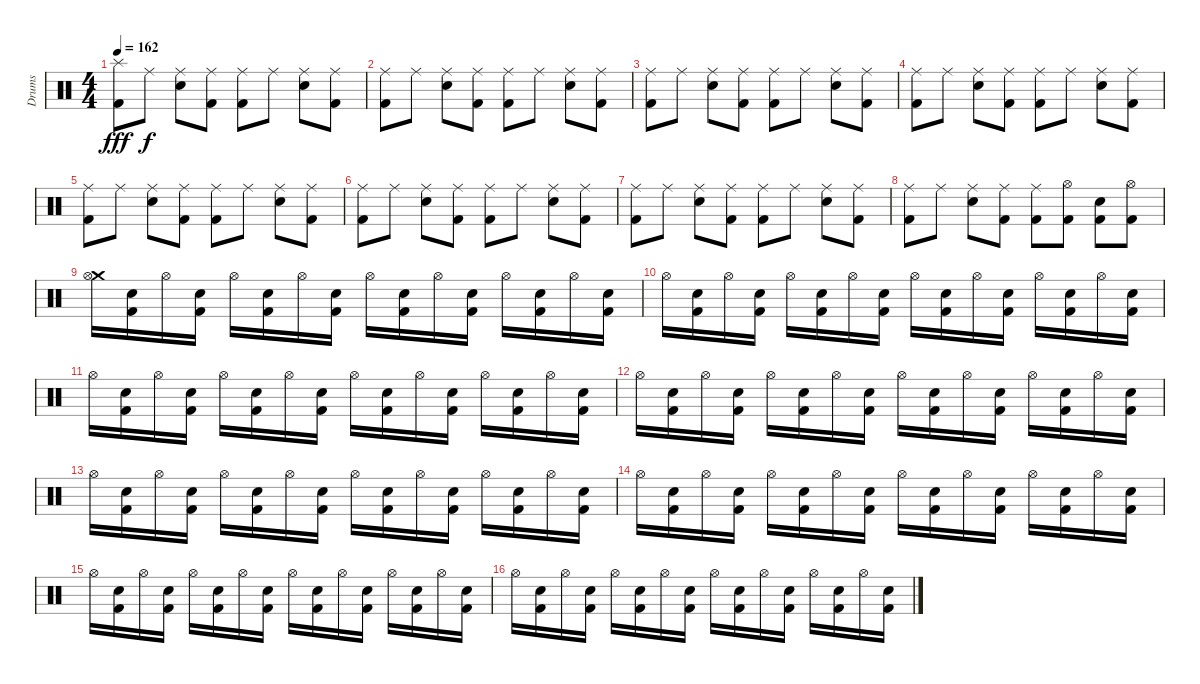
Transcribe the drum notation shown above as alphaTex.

\track ("Drums" "Drums") {instrument percussion}
\staff {score}
\articulation defaults
\ts (4 4)
\tempo 162
\clef neutral
\ks c
("Splash (hit)" "Kick (hit) 2").8{dy fff} "Ride (middle)".8{dy f} ("Ride (middle)" "Electric Snare (hit)").8 ("Ride (middle)" "Kick (hit) 2").8 ("Ride (middle)" "Kick (hit) 2").8 "Ride (middle)".8 ("Ride (middle)" "Electric Snare (hit)").8 ("Ride (middle)" "Kick (hit) 2").8 |
("Ride (middle)" "Kick (hit) 2").8 "Ride (middle)".8 ("Ride (middle)" "Electric Snare (hit)").8 ("Ride (middle)" "Kick (hit) 2").8 ("Ride (middle)" "Kick (hit) 2").8 "Ride (middle)".8 ("Ride (middle)" "Electric Snare (hit)").8 ("Ride (middle)" "Kick (hit) 2").8 |
("Ride (middle)" "Kick (hit) 2").8 "Ride (middle)".8 ("Ride (middle)" "Electric Snare (hit)").8 ("Ride (middle)" "Kick (hit) 2").8 ("Ride (middle)" "Kick (hit) 2").8 "Ride (middle)".8 ("Ride (middle)" "Electric Snare (hit)").8 ("Ride (middle)" "Kick (hit) 2").8 |
("Ride (middle)" "Kick (hit) 2").8 "Ride (middle)".8 ("Ride (middle)" "Electric Snare (hit)").8 ("Ride (middle)" "Kick (hit) 2").8 ("Ride (middle)" "Kick (hit) 2").8 "Ride (middle)".8 ("Ride (middle)" "Electric Snare (hit)").8 ("Ride (middle)" "Kick (hit) 2").8 |
("Ride (middle)" "Kick (hit) 2").8 "Ride (middle)".8 ("Ride (middle)" "Electric Snare (hit)").8 ("Ride (middle)" "Kick (hit) 2").8 ("Ride (middle)" "Kick (hit) 2").8 "Ride (middle)".8 ("Ride (middle)" "Electric Snare (hit)").8 ("Ride (middle)" "Kick (hit) 2").8 |
("Ride (middle)" "Kick (hit) 2").8 "Ride (middle)".8 ("Ride (middle)" "Electric Snare (hit)").8 ("Ride (middle)" "Kick (hit) 2").8 ("Ride (middle)" "Kick (hit) 2").8 "Ride (middle)".8 ("Ride (middle)" "Electric Snare (hit)").8 ("Ride (middle)" "Kick (hit) 2").8 |
("Ride (middle)" "Kick (hit) 2").8 "Ride (middle)".8 ("Ride (middle)" "Electric Snare (hit)").8 ("Ride (middle)" "Kick (hit) 2").8 ("Ride (middle)" "Kick (hit) 2").8 "Ride (middle)".8 ("Ride (middle)" "Electric Snare (hit)").8 ("Ride (middle)" "Kick (hit) 2").8 |
("Ride (middle)" "Kick (hit) 2").8 "Ride (middle)".8 ("Ride (middle)" "Electric Snare (hit)").8 ("Ride (middle)" "Kick (hit) 2").8 ("Ride (middle)" "Kick (hit) 2").8 ("Hi-Hat (open)" "Kick (hit) 2").8 ("Electric Snare (hit)" "Kick (hit) 2").8 ("Hi-Hat (open)" "Kick (hit) 2").8 |
("Crash medium (hit)" "Hi-Hat (open)").16 ("Electric Snare (hit)" "Kick (hit) 2").16 "Hi-Hat (open)".16 ("Electric Snare (hit)" "Kick (hit) 2").16 "Hi-Hat (open)".16 ("Electric Snare (hit)" "Kick (hit) 2").16 "Hi-Hat (open)".16 ("Electric Snare (hit)" "Kick (hit) 2").16 "Hi-Hat (open)".16 ("Electric Snare (hit)" "Kick (hit) 2").16 "Hi-Hat (open)".16 ("Electric Snare (hit)" "Kick (hit) 2").16 "Hi-Hat (open)".16 ("Electric Snare (hit)" "Kick (hit) 2").16 "Hi-Hat (open)".16 ("Electric Snare (hit)" "Kick (hit) 2").16 |
"Hi-Hat (open)".16 ("Electric Snare (hit)" "Kick (hit) 2").16 "Hi-Hat (open)".16 ("Electric Snare (hit)" "Kick (hit) 2").16 "Hi-Hat (open)".16 ("Electric Snare (hit)" "Kick (hit) 2").16 "Hi-Hat (open)".16 ("Electric Snare (hit)" "Kick (hit) 2").16 "Hi-Hat (open)".16 ("Electric Snare (hit)" "Kick (hit) 2").16 "Hi-Hat (open)".16 ("Electric Snare (hit)" "Kick (hit) 2").16 "Hi-Hat (open)".16 ("Electric Snare (hit)" "Kick (hit) 2").16 "Hi-Hat (open)".16 ("Electric Snare (hit)" "Kick (hit) 2").16 |
"Hi-Hat (open)".16 ("Electric Snare (hit)" "Kick (hit) 2").16 "Hi-Hat (open)".16 ("Electric Snare (hit)" "Kick (hit) 2").16 "Hi-Hat (open)".16 ("Electric Snare (hit)" "Kick (hit) 2").16 "Hi-Hat (open)".16 ("Electric Snare (hit)" "Kick (hit) 2").16 "Hi-Hat (open)".16 ("Electric Snare (hit)" "Kick (hit) 2").16 "Hi-Hat (open)".16 ("Electric Snare (hit)" "Kick (hit) 2").16 "Hi-Hat (open)".16 ("Electric Snare (hit)" "Kick (hit) 2").16 "Hi-Hat (open)".16 ("Electric Snare (hit)" "Kick (hit) 2").16 |
"Hi-Hat (open)".16 ("Electric Snare (hit)" "Kick (hit) 2").16 "Hi-Hat (open)".16 ("Electric Snare (hit)" "Kick (hit) 2").16 "Hi-Hat (open)".16 ("Electric Snare (hit)" "Kick (hit) 2").16 "Hi-Hat (open)".16 ("Electric Snare (hit)" "Kick (hit) 2").16 "Hi-Hat (open)".16 ("Electric Snare (hit)" "Kick (hit) 2").16 "Hi-Hat (open)".16 ("Electric Snare (hit)" "Kick (hit) 2").16 "Hi-Hat (open)".16 ("Electric Snare (hit)" "Kick (hit) 2").16 "Hi-Hat (open)".16 ("Electric Snare (hit)" "Kick (hit) 2").16 |
"Hi-Hat (open)".16 ("Electric Snare (hit)" "Kick (hit) 2").16 "Hi-Hat (open)".16 ("Electric Snare (hit)" "Kick (hit) 2").16 "Hi-Hat (open)".16 ("Electric Snare (hit)" "Kick (hit) 2").16 "Hi-Hat (open)".16 ("Electric Snare (hit)" "Kick (hit) 2").16 "Hi-Hat (open)".16 ("Electric Snare (hit)" "Kick (hit) 2").16 "Hi-Hat (open)".16 ("Electric Snare (hit)" "Kick (hit) 2").16 "Hi-Hat (open)".16 ("Electric Snare (hit)" "Kick (hit) 2").16 "Hi-Hat (open)".16 ("Electric Snare (hit)" "Kick (hit) 2").16 |
"Hi-Hat (open)".16 ("Electric Snare (hit)" "Kick (hit) 2").16 "Hi-Hat (open)".16 ("Electric Snare (hit)" "Kick (hit) 2").16 "Hi-Hat (open)".16 ("Electric Snare (hit)" "Kick (hit) 2").16 "Hi-Hat (open)".16 ("Electric Snare (hit)" "Kick (hit) 2").16 "Hi-Hat (open)".16 ("Electric Snare (hit)" "Kick (hit) 2").16 "Hi-Hat (open)".16 ("Electric Snare (hit)" "Kick (hit) 2").16 "Hi-Hat (open)".16 ("Electric Snare (hit)" "Kick (hit) 2").16 "Hi-Hat (open)".16 ("Electric Snare (hit)" "Kick (hit) 2").16 |
"Hi-Hat (open)".16 ("Electric Snare (hit)" "Kick (hit) 2").16 "Hi-Hat (open)".16 ("Electric Snare (hit)" "Kick (hit) 2").16 "Hi-Hat (open)".16 ("Electric Snare (hit)" "Kick (hit) 2").16 "Hi-Hat (open)".16 ("Electric Snare (hit)" "Kick (hit) 2").16 "Hi-Hat (open)".16 ("Electric Snare (hit)" "Kick (hit) 2").16 "Hi-Hat (open)".16 ("Electric Snare (hit)" "Kick (hit) 2").16 "Hi-Hat (open)".16 ("Electric Snare (hit)" "Kick (hit) 2").16 "Hi-Hat (open)".16 ("Electric Snare (hit)" "Kick (hit) 2").16 |
"Hi-Hat (open)".16 ("Electric Snare (hit)" "Kick (hit) 2").16 "Hi-Hat (open)".16 ("Electric Snare (hit)" "Kick (hit) 2").16 "Hi-Hat (open)".16 ("Electric Snare (hit)" "Kick (hit) 2").16 "Hi-Hat (open)".16 ("Electric Snare (hit)" "Kick (hit) 2").16 "Hi-Hat (open)".16 ("Electric Snare (hit)" "Kick (hit) 2").16 "Hi-Hat (open)".16 ("Electric Snare (hit)" "Kick (hit) 2").16 "Hi-Hat (open)".16 ("Electric Snare (hit)" "Kick (hit) 2").16 "Hi-Hat (open)".16 ("Electric Snare (hit)" "Kick (hit) 2").16
